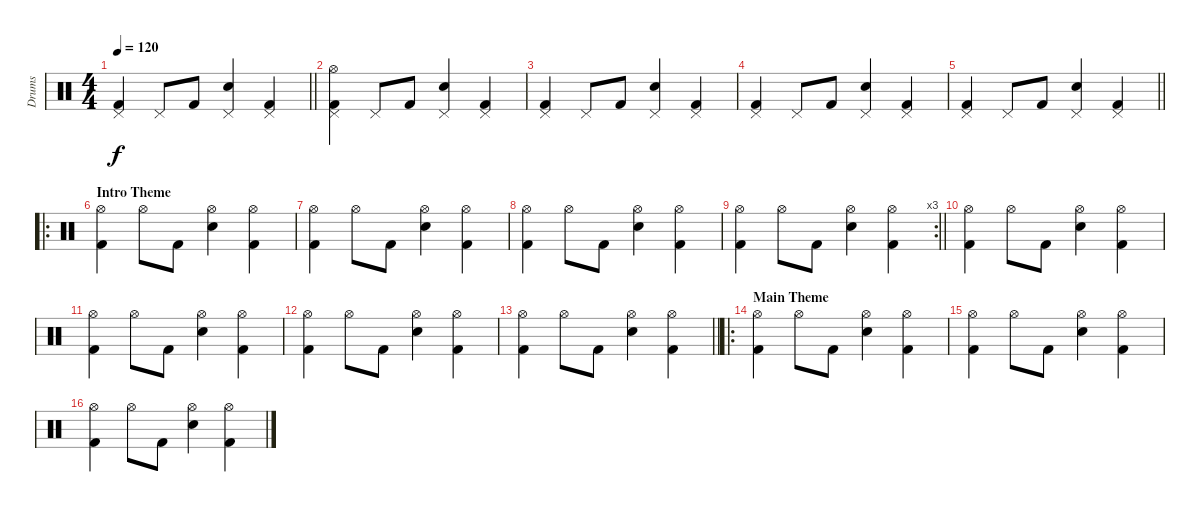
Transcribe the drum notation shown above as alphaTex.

\track ("Drums" "Drums") {instrument percussion}
\staff {score}
\articulation defaults
\ts (4 4)
\tempo 120
\clef neutral
\barLineRight lightlight
\ks c
("Pedal Hi-Hat (hit)" "Kick (hit) 2").4{dy f} "Pedal Hi-Hat (hit)".8 "Kick (hit) 2".8 ("Pedal Hi-Hat (hit)" "Electric Snare (hit)").4 ("Pedal Hi-Hat (hit)" "Kick (hit) 2").4 |
("Hi-Hat (open)" "Pedal Hi-Hat (hit)" "Kick (hit) 2").4 "Pedal Hi-Hat (hit)".8 "Kick (hit) 2".8 ("Pedal Hi-Hat (hit)" "Electric Snare (hit)").4 ("Pedal Hi-Hat (hit)" "Kick (hit) 2").4 |
("Pedal Hi-Hat (hit)" "Kick (hit) 2").4 "Pedal Hi-Hat (hit)".8 "Kick (hit) 2".8 ("Pedal Hi-Hat (hit)" "Electric Snare (hit)").4 ("Pedal Hi-Hat (hit)" "Kick (hit) 2").4 |
("Pedal Hi-Hat (hit)" "Kick (hit) 2").4 "Pedal Hi-Hat (hit)".8 "Kick (hit) 2".8 ("Pedal Hi-Hat (hit)" "Electric Snare (hit)").4 ("Pedal Hi-Hat (hit)" "Kick (hit) 2").4 |
\barLineRight lightlight
("Pedal Hi-Hat (hit)" "Kick (hit) 2").4 "Pedal Hi-Hat (hit)".8 "Kick (hit) 2".8 ("Pedal Hi-Hat (hit)" "Electric Snare (hit)").4 ("Pedal Hi-Hat (hit)" "Kick (hit) 2").4 |
\ro
\section ("" "Intro Theme")
("Hi-Hat (open)" "Kick (hit) 2").4 "Hi-Hat (open)".8 "Kick (hit) 2".8 ("Hi-Hat (open)" "Electric Snare (hit)").4 ("Hi-Hat (open)" "Kick (hit) 2").4 |
("Hi-Hat (open)" "Kick (hit) 2").4 "Hi-Hat (open)".8 "Kick (hit) 2".8 ("Hi-Hat (open)" "Electric Snare (hit)").4 ("Hi-Hat (open)" "Kick (hit) 2").4 |
("Hi-Hat (open)" "Kick (hit) 2").4 "Hi-Hat (open)".8 "Kick (hit) 2".8 ("Hi-Hat (open)" "Electric Snare (hit)").4 ("Hi-Hat (open)" "Kick (hit) 2").4 |
\rc 3
\barLineRight lightlight
("Hi-Hat (open)" "Kick (hit) 2").4 "Hi-Hat (open)".8 "Kick (hit) 2".8 ("Hi-Hat (open)" "Electric Snare (hit)").4 ("Hi-Hat (open)" "Kick (hit) 2").4 |
("Hi-Hat (open)" "Kick (hit) 2").4 "Hi-Hat (open)".8 "Kick (hit) 2".8 ("Hi-Hat (open)" "Electric Snare (hit)").4 ("Hi-Hat (open)" "Kick (hit) 2").4 |
("Hi-Hat (open)" "Kick (hit) 2").4 "Hi-Hat (open)".8 "Kick (hit) 2".8 ("Hi-Hat (open)" "Electric Snare (hit)").4 ("Hi-Hat (open)" "Kick (hit) 2").4 |
("Hi-Hat (open)" "Kick (hit) 2").4 "Hi-Hat (open)".8 "Kick (hit) 2".8 ("Hi-Hat (open)" "Electric Snare (hit)").4 ("Hi-Hat (open)" "Kick (hit) 2").4 |
\barLineRight lightlight
("Hi-Hat (open)" "Kick (hit) 2").4 "Hi-Hat (open)".8 "Kick (hit) 2".8 ("Hi-Hat (open)" "Electric Snare (hit)").4 ("Hi-Hat (open)" "Kick (hit) 2").4 |
\ro
\section ("" "Main Theme")
("Hi-Hat (open)" "Kick (hit) 2").4 "Hi-Hat (open)".8 "Kick (hit) 2".8 ("Hi-Hat (open)" "Electric Snare (hit)").4 ("Hi-Hat (open)" "Kick (hit) 2").4 |
("Hi-Hat (open)" "Kick (hit) 2").4 "Hi-Hat (open)".8 "Kick (hit) 2".8 ("Hi-Hat (open)" "Electric Snare (hit)").4 ("Hi-Hat (open)" "Kick (hit) 2").4 |
("Hi-Hat (open)" "Kick (hit) 2").4 "Hi-Hat (open)".8 "Kick (hit) 2".8 ("Hi-Hat (open)" "Electric Snare (hit)").4 ("Hi-Hat (open)" "Kick (hit) 2").4
